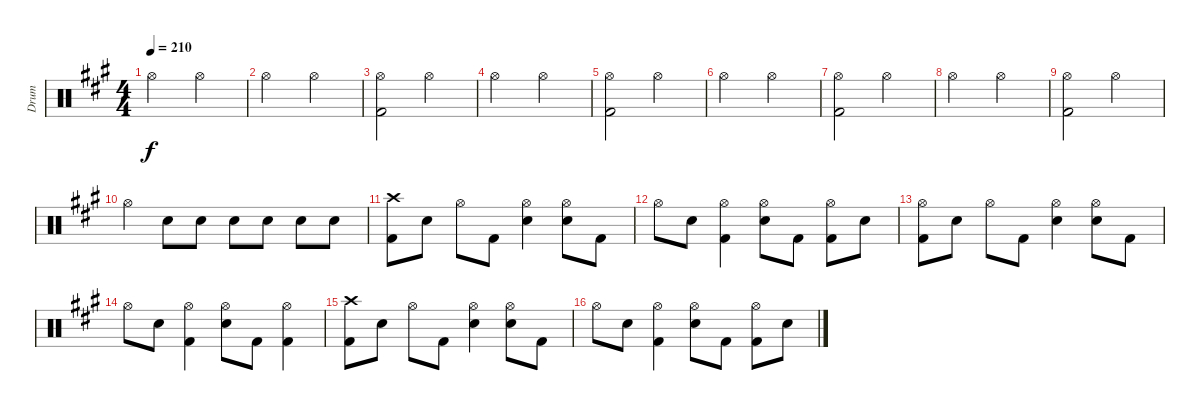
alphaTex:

\track ("Drum" "Drum") {instrument percussion}
\staff {score}
\articulation defaults
\ts (4 4)
\tempo 210
\clef neutral
\ks a "Hi-Hat (open)".2{dy f} "Hi-Hat (open)".2
|
"Hi-Hat (open)".2 "Hi-Hat (open)".2 |
("Hi-Hat (open)" "Kick (hit) 2").2 "Hi-Hat (open)".2 |
"Hi-Hat (open)".2 "Hi-Hat (open)".2 |
("Hi-Hat (open)" "Kick (hit) 2").2 "Hi-Hat (open)".2 |
"Hi-Hat (open)".2 "Hi-Hat (open)".2 |
("Hi-Hat (open)" "Kick (hit) 2").2 "Hi-Hat (open)".2 |
"Hi-Hat (open)".2 "Hi-Hat (open)".2 |
("Hi-Hat (open)" "Kick (hit) 2").2 "Hi-Hat (open)".2 |
"Hi-Hat (open)".4 "Electric Snare (hit)".8 "Electric Snare (hit)".8 "Electric Snare (hit)".8 "Electric Snare (hit)".8 "Electric Snare (hit)".8 "Electric Snare (hit)".8 |
("Crash high (hit)" "Kick (hit) 2").8 "Electric Snare (hit)".8 "Hi-Hat (open)".8 "Kick (hit) 2".8 ("Hi-Hat (open)" "Electric Snare (hit)").4 ("Hi-Hat (open)" "Electric Snare (hit)").8 "Kick (hit) 2".8 |
"Hi-Hat (open)".8 "Electric Snare (hit)".8 ("Hi-Hat (open)" "Kick (hit) 2").4 ("Hi-Hat (open)" "Electric Snare (hit)").8 "Kick (hit) 2".8 ("Hi-Hat (open)" "Kick (hit) 2").8 "Electric Snare (hit)".8 |
("Hi-Hat (open)" "Kick (hit) 2").8 "Electric Snare (hit)".8 "Hi-Hat (open)".8 "Kick (hit) 2".8 ("Hi-Hat (open)" "Electric Snare (hit)").4 ("Hi-Hat (open)" "Electric Snare (hit)").8 "Kick (hit) 2".8 |
"Hi-Hat (open)".8 "Electric Snare (hit)".8 ("Hi-Hat (open)" "Kick (hit) 2").4 ("Hi-Hat (open)" "Electric Snare (hit)").8 "Kick (hit) 2".8 ("Hi-Hat (open)" "Kick (hit) 2").4 |
("Crash high (hit)" "Kick (hit) 2").8 "Electric Snare (hit)".8 "Hi-Hat (open)".8 "Kick (hit) 2".8 ("Hi-Hat (open)" "Electric Snare (hit)").4 ("Hi-Hat (open)" "Electric Snare (hit)").8 "Kick (hit) 2".8 |
"Hi-Hat (open)".8 "Electric Snare (hit)".8 ("Hi-Hat (open)" "Kick (hit) 2").4 ("Hi-Hat (open)" "Electric Snare (hit)").8 "Kick (hit) 2".8 ("Hi-Hat (open)" "Kick (hit) 2").8 "Electric Snare (hit)".8
